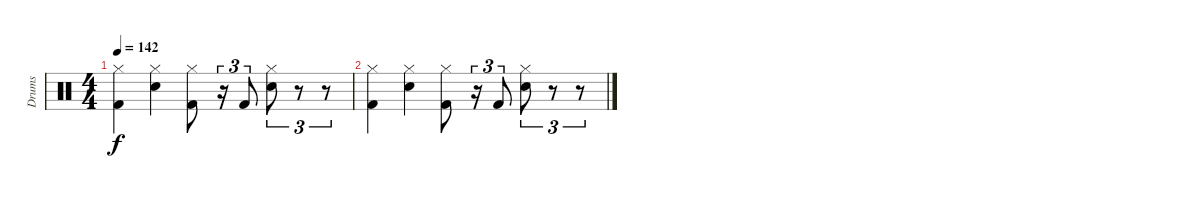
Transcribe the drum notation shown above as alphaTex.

\track ("Drums" "Drums") {instrument percussion}
\staff {score}
\articulation defaults
\ts (4 4)
\tempo 142
\clef neutral
\ks c
("Hi-Hat (closed)" "Kick (hit) 2").4{dy f} ("Hi-Hat (closed)" "Snare (hit) 2").4 ("Hi-Hat (closed)" "Kick (hit) 2").8 r.16{tu (3 2)} "Kick (hit) 2".8{tu (3 2)} ("Hi-Hat (closed)" "Snare (hit) 2").8{tu (3 2)} r.8{tu (3 2)} r.8{tu (3 2)} |
("Hi-Hat (closed)" "Kick (hit) 2").4 ("Hi-Hat (closed)" "Snare (hit) 2").4 ("Hi-Hat (closed)" "Kick (hit) 2").8 r.16{tu (3 2)} "Kick (hit) 2".8{tu (3 2)} ("Hi-Hat (closed)" "Snare (hit) 2").8{tu (3 2)} r.8{tu (3 2)} r.8{tu (3 2)}
